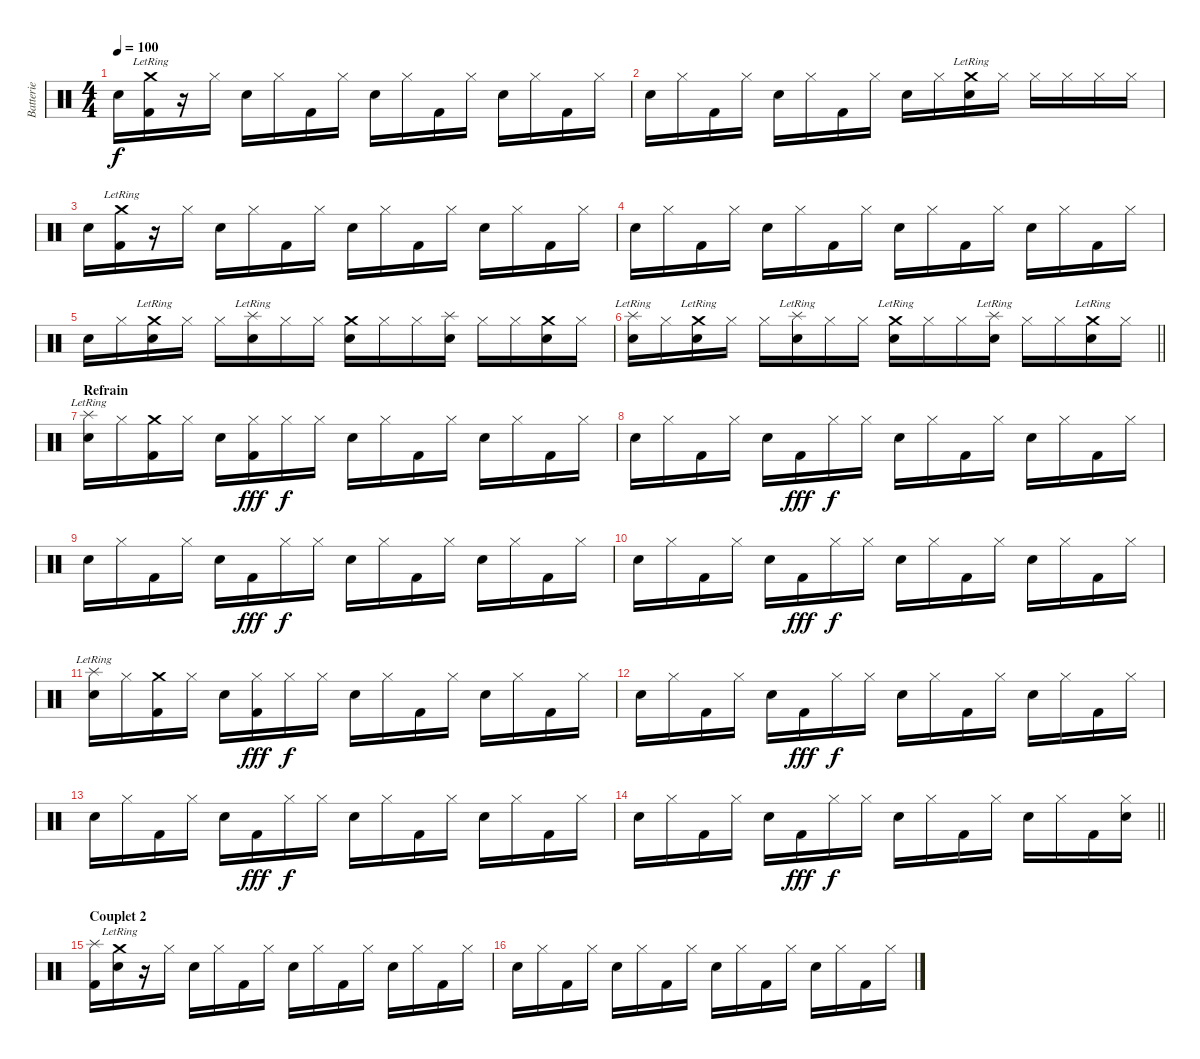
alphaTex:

\track ("Batterie" "Batterie") {instrument percussion}
\staff {score}
\articulation defaults
\ts (4 4)
\tempo 100
\clef neutral
\ks c "Electric Snare (hit)".16{dy f}
("Crash medium (hit)"{lr} "Kick (hit) 2").16 r.16 "Hi-Hat (closed)".16 "Electric Snare (hit)".16 "Hi-Hat (closed)".16 "Kick (hit) 2".16 "Hi-Hat (closed)".16 "Electric Snare (hit)".16 "Hi-Hat (closed)".16 "Kick (hit) 2".16 "Hi-Hat (closed)".16 "Electric Snare (hit)".16 "Hi-Hat (closed)".16 "Kick (hit) 2".16 "Hi-Hat (closed)".16 |
"Electric Snare (hit)".16 "Hi-Hat (closed)".16 "Kick (hit) 2".16 "Hi-Hat (closed)".16 "Electric Snare (hit)".16 "Hi-Hat (closed)".16 "Kick (hit) 2".16 "Hi-Hat (closed)".16 "Electric Snare (hit)".16 "Hi-Hat (closed)".16 ("Crash medium (hit)"{lr} "Electric Snare (hit)").16 "Hi-Hat (closed)".16 "Hi-Hat (closed)".16 "Hi-Hat (closed)".16 "Hi-Hat (closed)".16 "Hi-Hat (closed)".16 |
"Electric Snare (hit)".16 ("Crash medium (hit)"{lr} "Kick (hit) 2").16 r.16 "Hi-Hat (closed)".16 "Electric Snare (hit)".16 "Hi-Hat (closed)".16 "Kick (hit) 2".16 "Hi-Hat (closed)".16 "Electric Snare (hit)".16 "Hi-Hat (closed)".16 "Kick (hit) 2".16 "Hi-Hat (closed)".16 "Electric Snare (hit)".16 "Hi-Hat (closed)".16 "Kick (hit) 2".16 "Hi-Hat (closed)".16 |
"Electric Snare (hit)".16 "Hi-Hat (closed)".16 "Kick (hit) 2".16 "Hi-Hat (closed)".16 "Electric Snare (hit)".16 "Hi-Hat (closed)".16 "Kick (hit) 2".16 "Hi-Hat (closed)".16 "Electric Snare (hit)".16 "Hi-Hat (closed)".16 "Kick (hit) 2".16 "Hi-Hat (closed)".16 "Electric Snare (hit)".16 "Hi-Hat (closed)".16 "Kick (hit) 2".16 "Hi-Hat (closed)".16 |
"Electric Snare (hit)".16 "Hi-Hat (closed)".16 ("Crash medium (hit)"{lr} "Electric Snare (hit)").16 "Hi-Hat (closed)".16 "Hi-Hat (closed)".16 ("Splash (hit)"{lr} "Electric Snare (hit)").16 "Hi-Hat (closed)".16 "Hi-Hat (closed)".16 ("Crash medium (hit)" "Electric Snare (hit)").16 "Hi-Hat (closed)".16 "Hi-Hat (closed)".16 ("Splash (hit)" "Electric Snare (hit)").16 "Hi-Hat (closed)".16 "Hi-Hat (closed)".16 ("Crash medium (hit)" "Electric Snare (hit)").16 "Hi-Hat (closed)".16 |
\barLineRight lightlight
("Splash (hit)"{lr} "Electric Snare (hit)").16 "Hi-Hat (closed)".16 ("Crash medium (hit)"{lr} "Electric Snare (hit)").16 "Hi-Hat (closed)".16 "Hi-Hat (closed)".16 ("Splash (hit)"{lr} "Electric Snare (hit)").16 "Hi-Hat (closed)".16 "Hi-Hat (closed)".16 ("Crash medium (hit)"{lr} "Electric Snare (hit)").16 "Hi-Hat (closed)".16 "Hi-Hat (closed)".16 ("Splash (hit)"{lr} "Electric Snare (hit)").16 "Hi-Hat (closed)".16 "Hi-Hat (closed)".16 ("Crash medium (hit)"{lr} "Electric Snare (hit)").16 "Hi-Hat (closed)".16 |
\section ("" "Refrain")
("Splash (hit)"{lr} "Electric Snare (hit)").16 "Hi-Hat (closed)".16 ("Crash medium (hit)" "Kick (hit) 2").16 "Hi-Hat (closed)".16 "Electric Snare (hit)".16 ("Kick (hit) 2" "Hi-Hat (closed)").16{dy fff} "Hi-Hat (closed)".16{dy f} "Hi-Hat (closed)".16 "Electric Snare (hit)".16 "Hi-Hat (closed)".16 "Kick (hit) 2".16 "Hi-Hat (closed)".16 "Electric Snare (hit)".16 "Hi-Hat (closed)".16 "Kick (hit) 2".16 "Hi-Hat (closed)".16 |
"Electric Snare (hit)".16 "Hi-Hat (closed)".16 "Kick (hit) 2".16 "Hi-Hat (closed)".16 "Electric Snare (hit)".16 "Kick (hit) 2".16{dy fff} "Hi-Hat (closed)".16{dy f} "Hi-Hat (closed)".16 "Electric Snare (hit)".16 "Hi-Hat (closed)".16 "Kick (hit) 2".16 "Hi-Hat (closed)".16 "Electric Snare (hit)".16 "Hi-Hat (closed)".16 "Kick (hit) 2".16 "Hi-Hat (closed)".16 |
"Electric Snare (hit)".16 "Hi-Hat (closed)".16 "Kick (hit) 2".16 "Hi-Hat (closed)".16 "Electric Snare (hit)".16 "Kick (hit) 2".16{dy fff} "Hi-Hat (closed)".16{dy f} "Hi-Hat (closed)".16 "Electric Snare (hit)".16 "Hi-Hat (closed)".16 "Kick (hit) 2".16 "Hi-Hat (closed)".16 "Electric Snare (hit)".16 "Hi-Hat (closed)".16 "Kick (hit) 2".16 "Hi-Hat (closed)".16 |
"Electric Snare (hit)".16 "Hi-Hat (closed)".16 "Kick (hit) 2".16 "Hi-Hat (closed)".16 "Electric Snare (hit)".16 "Kick (hit) 2".16{dy fff} "Hi-Hat (closed)".16{dy f} "Hi-Hat (closed)".16 "Electric Snare (hit)".16 "Hi-Hat (closed)".16 "Kick (hit) 2".16 "Hi-Hat (closed)".16 "Electric Snare (hit)".16 "Hi-Hat (closed)".16 "Kick (hit) 2".16 "Hi-Hat (closed)".16 |
("Splash (hit)"{lr} "Electric Snare (hit)").16 "Hi-Hat (closed)".16 ("Crash medium (hit)" "Kick (hit) 2").16 "Hi-Hat (closed)".16 "Electric Snare (hit)".16 ("Kick (hit) 2" "Hi-Hat (closed)").16{dy fff} "Hi-Hat (closed)".16{dy f} "Hi-Hat (closed)".16 "Electric Snare (hit)".16 "Hi-Hat (closed)".16 "Kick (hit) 2".16 "Hi-Hat (closed)".16 "Electric Snare (hit)".16 "Hi-Hat (closed)".16 "Kick (hit) 2".16 "Hi-Hat (closed)".16 |
"Electric Snare (hit)".16 "Hi-Hat (closed)".16 "Kick (hit) 2".16 "Hi-Hat (closed)".16 "Electric Snare (hit)".16 "Kick (hit) 2".16{dy fff} "Hi-Hat (closed)".16{dy f} "Hi-Hat (closed)".16 "Electric Snare (hit)".16 "Hi-Hat (closed)".16 "Kick (hit) 2".16 "Hi-Hat (closed)".16 "Electric Snare (hit)".16 "Hi-Hat (closed)".16 "Kick (hit) 2".16 "Hi-Hat (closed)".16 |
"Electric Snare (hit)".16 "Hi-Hat (closed)".16 "Kick (hit) 2".16 "Hi-Hat (closed)".16 "Electric Snare (hit)".16 "Kick (hit) 2".16{dy fff} "Hi-Hat (closed)".16{dy f} "Hi-Hat (closed)".16 "Electric Snare (hit)".16 "Hi-Hat (closed)".16 "Kick (hit) 2".16 "Hi-Hat (closed)".16 "Electric Snare (hit)".16 "Hi-Hat (closed)".16 "Kick (hit) 2".16 "Hi-Hat (closed)".16 |
\barLineRight lightlight "Electric Snare (hit)".16 "Hi-Hat (closed)".16 "Kick (hit) 2".16 "Hi-Hat (closed)".16 "Electric Snare (hit)".16 "Kick (hit) 2".16{dy fff} "Hi-Hat (closed)".16{dy f} "Hi-Hat (closed)".16 "Electric Snare (hit)".16 "Hi-Hat (closed)".16 "Kick (hit) 2".16 "Hi-Hat (closed)".16 "Electric Snare (hit)".16 "Hi-Hat (closed)".16 "Kick (hit) 2".16
("Electric Snare (hit)" "Hi-Hat (closed)").16 |
\section ("" "Couplet 2")
("Splash (hit)" "Kick (hit) 2").16 ("Crash medium (hit)"{lr} "Electric Snare (hit)").16 r.16 "Hi-Hat (closed)".16 "Electric Snare (hit)".16 "Hi-Hat (closed)".16 "Kick (hit) 2".16 "Hi-Hat (closed)".16 "Electric Snare (hit)".16 "Hi-Hat (closed)".16 "Kick (hit) 2".16 "Hi-Hat (closed)".16 "Electric Snare (hit)".16 "Hi-Hat (closed)".16 "Kick (hit) 2".16 "Hi-Hat (closed)".16 |
"Electric Snare (hit)".16 "Hi-Hat (closed)".16 "Kick (hit) 2".16 "Hi-Hat (closed)".16 "Electric Snare (hit)".16 "Hi-Hat (closed)".16 "Kick (hit) 2".16 "Hi-Hat (closed)".16 "Electric Snare (hit)".16 "Hi-Hat (closed)".16 "Kick (hit) 2".16 "Hi-Hat (closed)".16 "Electric Snare (hit)".16 "Hi-Hat (closed)".16 "Kick (hit) 2".16 "Hi-Hat (closed)".16
